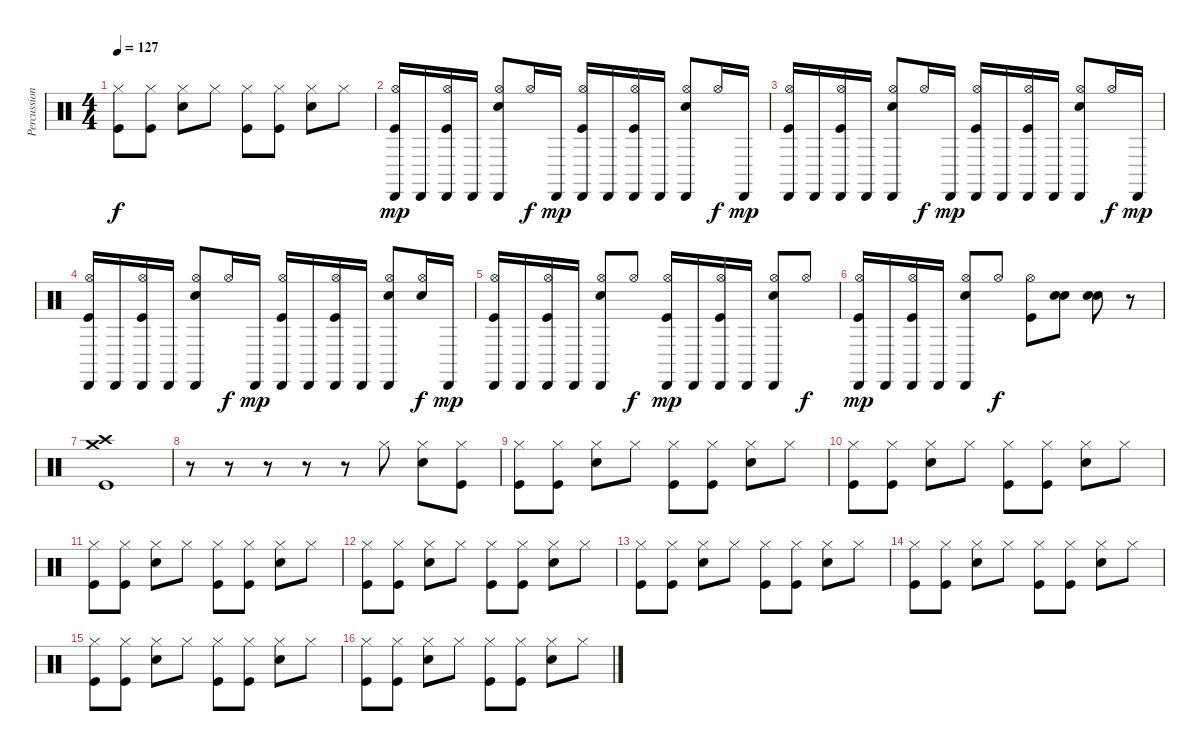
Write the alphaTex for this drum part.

\track ("Percussion" "Percussion") {instrument percussion}
\staff {score}
\articulation defaults
\ts (4 4)
\tempo 127
\clef neutral
\ks c
("Hi-Hat (closed)" "Kick (hit)").8{dy f} ("Hi-Hat (closed)" "Kick (hit)").8 ("Hi-Hat (closed)" "Snare (hit) 2").8 "Hi-Hat (closed)".8 ("Hi-Hat (closed)" "Kick (hit)").8 ("Hi-Hat (closed)" "Kick (hit)").8 ("Hi-Hat (closed)" "Snare (hit) 2").8 "Hi-Hat (closed)".8 |
("Hi-Hat (open)" "Kick (hit)" "Cabasa (hit)").16{dy mp} "Cabasa (hit)".16 ("Hi-Hat (open)" "Kick (hit)" "Cabasa (hit)").16 "Cabasa (hit)".16 ("Hi-Hat (open)" "Snare (hit) 2" "Cabasa (hit)").8 "Hi-Hat (open)".16{dy f} "Cabasa (hit)".16{dy mp} ("Hi-Hat (open)" "Kick (hit)" "Cabasa (hit)").16 "Cabasa (hit)".16 ("Hi-Hat (open)" "Kick (hit)" "Cabasa (hit)").16 "Cabasa (hit)".16 ("Hi-Hat (open)" "Snare (hit) 2" "Cabasa (hit)").8 "Hi-Hat (open)".16{dy f} "Cabasa (hit)".16{dy mp} |
("Hi-Hat (open)" "Kick (hit)" "Cabasa (hit)").16 "Cabasa (hit)".16 ("Hi-Hat (open)" "Kick (hit)" "Cabasa (hit)").16 "Cabasa (hit)".16 ("Hi-Hat (open)" "Snare (hit) 2" "Cabasa (hit)").8 "Hi-Hat (open)".16{dy f} "Cabasa (hit)".16{dy mp} ("Hi-Hat (open)" "Kick (hit)" "Cabasa (hit)").16 "Cabasa (hit)".16 ("Hi-Hat (open)" "Kick (hit)" "Cabasa (hit)").16 "Cabasa (hit)".16 ("Hi-Hat (open)" "Snare (hit) 2" "Cabasa (hit)").8 "Hi-Hat (open)".16{dy f} "Cabasa (hit)".16{dy mp} |
("Hi-Hat (open)" "Kick (hit)" "Cabasa (hit)").16 "Cabasa (hit)".16 ("Hi-Hat (open)" "Kick (hit)" "Cabasa (hit)").16 "Cabasa (hit)".16 ("Hi-Hat (open)" "Snare (hit) 2" "Cabasa (hit)").8 "Hi-Hat (open)".16{dy f} "Cabasa (hit)".16{dy mp} ("Hi-Hat (open)" "Kick (hit)" "Cabasa (hit)").16 "Cabasa (hit)".16 ("Hi-Hat (open)" "Kick (hit)" "Cabasa (hit)").16 "Cabasa (hit)".16 ("Hi-Hat (open)" "Snare (hit) 2" "Cabasa (hit)").8 ("Hi-Hat (open)" "Snare (hit) 2").16{dy f} "Cabasa (hit)".16{dy mp} |
("Hi-Hat (open)" "Kick (hit)" "Cabasa (hit)").16 "Cabasa (hit)".16 ("Hi-Hat (open)" "Kick (hit)" "Cabasa (hit)").16 "Cabasa (hit)".16 ("Hi-Hat (open)" "Snare (hit) 2" "Cabasa (hit)").8 "Hi-Hat (open)".8{dy f} ("Hi-Hat (open)" "Kick (hit)" "Cabasa (hit)").16{dy mp} "Cabasa (hit)".16 ("Hi-Hat (open)" "Kick (hit)" "Cabasa (hit)").16 "Cabasa (hit)".16 ("Hi-Hat (open)" "Snare (hit) 2" "Cabasa (hit)").8 "Hi-Hat (open)".8{dy f} |
("Hi-Hat (open)" "Kick (hit)" "Cabasa (hit)").16{dy mp} "Cabasa (hit)".16 ("Hi-Hat (open)" "Kick (hit)" "Cabasa (hit)").16 "Cabasa (hit)".16 ("Hi-Hat (open)" "Snare (hit) 2" "Cabasa (hit)").8 "Hi-Hat (open)".8{dy f} ("Hi-Hat (open)" "Kick (hit)").8 ("Snare (hit) 2" "Snare (hit) 2").8 ("Snare (hit) 2" "Snare (hit) 2").8 r.8 |
("Crash high (hit)" "Crash medium (hit)" "Kick (hit)").1 |
r.8 r.8 r.8 r.8 r.8 "Hi-Hat (closed)".8 ("Hi-Hat (closed)" "Snare (hit) 2").8 ("Hi-Hat (closed)" "Kick (hit)").8 |
("Hi-Hat (closed)" "Kick (hit)").8 ("Hi-Hat (closed)" "Kick (hit)").8 ("Hi-Hat (closed)" "Snare (hit) 2").8 "Hi-Hat (closed)".8 ("Hi-Hat (closed)" "Kick (hit)").8 ("Hi-Hat (closed)" "Kick (hit)").8 ("Hi-Hat (closed)" "Snare (hit) 2").8 "Hi-Hat (closed)".8 |
("Hi-Hat (closed)" "Kick (hit)").8 ("Hi-Hat (closed)" "Kick (hit)").8 ("Hi-Hat (closed)" "Snare (hit) 2").8 "Hi-Hat (closed)".8 ("Hi-Hat (closed)" "Kick (hit)").8 ("Hi-Hat (closed)" "Kick (hit)").8 ("Hi-Hat (closed)" "Snare (hit) 2").8 "Hi-Hat (closed)".8 |
("Hi-Hat (closed)" "Kick (hit)").8 ("Hi-Hat (closed)" "Kick (hit)").8 ("Hi-Hat (closed)" "Snare (hit) 2").8 "Hi-Hat (closed)".8 ("Hi-Hat (closed)" "Kick (hit)").8 ("Hi-Hat (closed)" "Kick (hit)").8 ("Hi-Hat (closed)" "Snare (hit) 2").8 "Hi-Hat (closed)".8 |
("Hi-Hat (closed)" "Kick (hit)").8 ("Hi-Hat (closed)" "Kick (hit)").8 ("Hi-Hat (closed)" "Snare (hit) 2").8 "Hi-Hat (closed)".8 ("Hi-Hat (closed)" "Kick (hit)").8 ("Hi-Hat (closed)" "Kick (hit)").8 ("Hi-Hat (closed)" "Snare (hit) 2").8 "Hi-Hat (closed)".8 |
("Hi-Hat (closed)" "Kick (hit)").8 ("Hi-Hat (closed)" "Kick (hit)").8 ("Hi-Hat (closed)" "Snare (hit) 2").8 "Hi-Hat (closed)".8 ("Hi-Hat (closed)" "Kick (hit)").8 ("Hi-Hat (closed)" "Kick (hit)").8 ("Hi-Hat (closed)" "Snare (hit) 2").8 "Hi-Hat (closed)".8 |
("Hi-Hat (closed)" "Kick (hit)").8 ("Hi-Hat (closed)" "Kick (hit)").8 ("Hi-Hat (closed)" "Snare (hit) 2").8 "Hi-Hat (closed)".8 ("Hi-Hat (closed)" "Kick (hit)").8 ("Hi-Hat (closed)" "Kick (hit)").8 ("Hi-Hat (closed)" "Snare (hit) 2").8 "Hi-Hat (closed)".8 |
("Hi-Hat (closed)" "Kick (hit)").8 ("Hi-Hat (closed)" "Kick (hit)").8 ("Hi-Hat (closed)" "Snare (hit) 2").8 "Hi-Hat (closed)".8 ("Hi-Hat (closed)" "Kick (hit)").8 ("Hi-Hat (closed)" "Kick (hit)").8 ("Hi-Hat (closed)" "Snare (hit) 2").8 "Hi-Hat (closed)".8 |
("Hi-Hat (closed)" "Kick (hit)").8 ("Hi-Hat (closed)" "Kick (hit)").8 ("Hi-Hat (closed)" "Snare (hit) 2").8 "Hi-Hat (closed)".8 ("Hi-Hat (closed)" "Kick (hit)").8 ("Hi-Hat (closed)" "Kick (hit)").8 ("Hi-Hat (closed)" "Snare (hit) 2").8 "Hi-Hat (closed)".8
